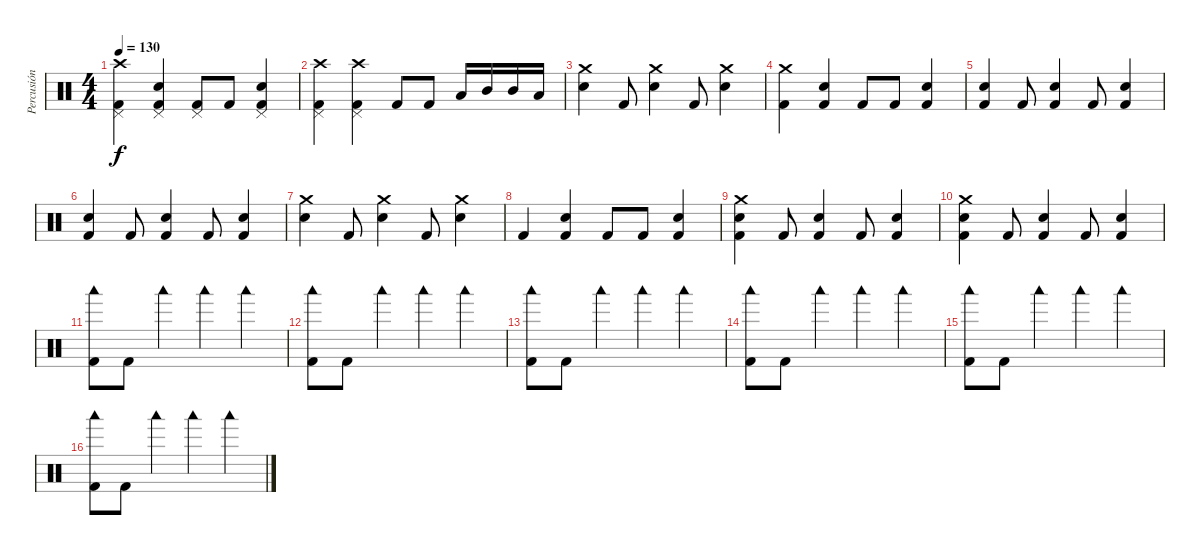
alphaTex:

\track ("Percusión" "Percusión") {instrument percussion}
\staff {score}
\articulation defaults
\ts (4 4)
\tempo 130
\clef neutral
\ks c
("Crash high (hit)" "Pedal Hi-Hat (hit)" "Kick (hit) 2").4{dy f} ("Pedal Hi-Hat (hit)" "Electric Snare (hit)" "Kick (hit) 2").4 ("Pedal Hi-Hat (hit)" "Kick (hit) 2").8 "Kick (hit) 2".8 ("Pedal Hi-Hat (hit)" "Kick (hit) 2" "Electric Snare (hit)").4 |
("Crash high (hit)" "Pedal Hi-Hat (hit)" "Kick (hit) 2").4 ("Crash high (hit)" "Pedal Hi-Hat (hit)" "Kick (hit) 2").4 "Kick (hit) 2".8 "Kick (hit) 2".8 "Low Tom (hit)".16 "Mid Tom (hit)".16 "Mid Tom (hit)".16 "Low Tom (hit)".16 |
("Crash medium (hit)" "Electric Snare (hit)").4 "Kick (hit) 2".8 ("Crash medium (hit)" "Electric Snare (hit)").4 "Kick (hit) 2".8 ("Crash medium (hit)" "Electric Snare (hit)").4 |
("Crash medium (hit)" "Kick (hit) 2").4 ("Kick (hit) 2" "Electric Snare (hit)").4 "Kick (hit) 2".8 "Kick (hit) 2".8 ("Kick (hit) 2" "Electric Snare (hit)").4 |
("Kick (hit) 2" "Electric Snare (hit)").4 "Kick (hit) 2".8 ("Kick (hit) 2" "Electric Snare (hit)").4 "Kick (hit) 2".8 ("Kick (hit) 2" "Electric Snare (hit)").4 |
("Kick (hit) 2" "Electric Snare (hit)").4 "Kick (hit) 2".8 ("Kick (hit) 2" "Electric Snare (hit)").4 "Kick (hit) 2".8 ("Kick (hit) 2" "Electric Snare (hit)").4 |
("Crash medium (hit)" "Electric Snare (hit)").4 "Kick (hit) 2".8 ("Crash medium (hit)" "Electric Snare (hit)").4 "Kick (hit) 2".8 ("Crash medium (hit)" "Electric Snare (hit)").4 |
"Kick (hit) 2".4 ("Kick (hit) 2" "Electric Snare (hit)").4 "Kick (hit) 2".8 "Kick (hit) 2".8 ("Kick (hit) 2" "Electric Snare (hit)").4 |
("Kick (hit) 2" "Electric Snare (hit)" "Crash medium (hit)").4 "Kick (hit) 2".8 ("Kick (hit) 2" "Electric Snare (hit)").4 "Kick (hit) 2".8 ("Kick (hit) 2" "Electric Snare (hit)").4 |
("Crash medium (hit)" "Kick (hit) 2" "Electric Snare (hit)").4 "Kick (hit) 2".8 ("Kick (hit) 2" "Electric Snare (hit)").4 "Kick (hit) 2".8 ("Kick (hit) 2" "Electric Snare (hit)").4 |
("Woodblock low (hit)" "Kick (hit) 2").8 "Kick (hit) 2".8 "Woodblock low (hit)".4 "Woodblock low (hit)".4 "Woodblock low (hit)".4 |
("Woodblock low (hit)" "Kick (hit) 2").8 "Kick (hit) 2".8 "Woodblock low (hit)".4 "Woodblock low (hit)".4 "Woodblock low (hit)".4 |
("Woodblock low (hit)" "Kick (hit) 2").8 "Kick (hit) 2".8 "Woodblock low (hit)".4 "Woodblock low (hit)".4 "Woodblock low (hit)".4 |
("Woodblock low (hit)" "Kick (hit) 2").8 "Kick (hit) 2".8 "Woodblock low (hit)".4 "Woodblock low (hit)".4 "Woodblock low (hit)".4 |
("Woodblock low (hit)" "Kick (hit) 2").8 "Kick (hit) 2".8 "Woodblock low (hit)".4 "Woodblock low (hit)".4 "Woodblock low (hit)".4 |
("Woodblock low (hit)" "Kick (hit) 2").8 "Kick (hit) 2".8 "Woodblock low (hit)".4 "Woodblock low (hit)".4 "Woodblock low (hit)".4
